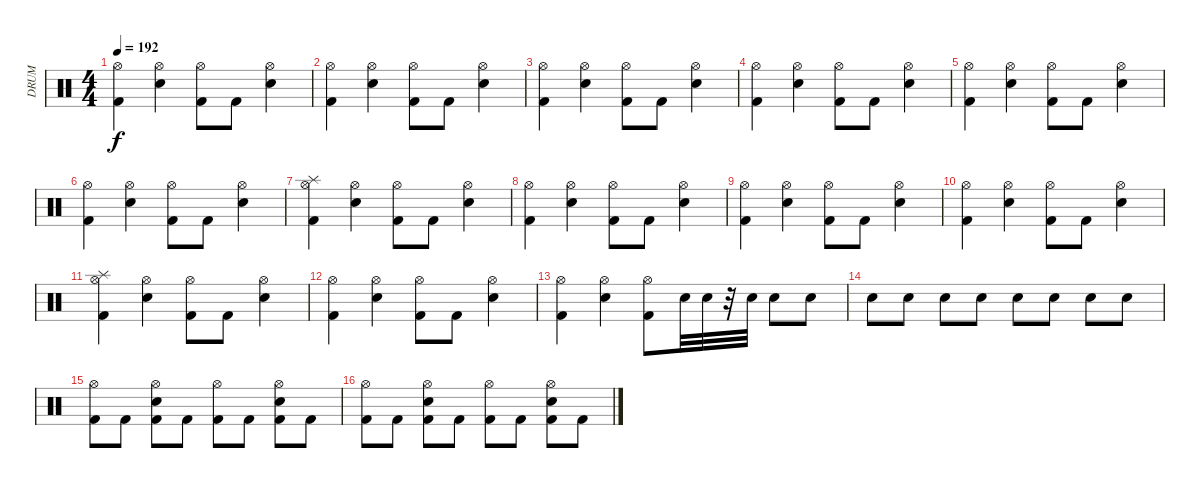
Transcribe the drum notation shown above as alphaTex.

\track ("     DRUM" "     DRUM") {instrument percussion}
\staff {score}
\articulation defaults
\ts (4 4)
\tempo 192
\clef neutral
\ks c
("Hi-Hat (open)" "Kick (hit) 2").4{dy f} ("Hi-Hat (open)" "Electric Snare (hit)").4 ("Hi-Hat (open)" "Kick (hit) 2").8 "Kick (hit) 2".8 ("Hi-Hat (open)" "Electric Snare (hit)").4 |
("Hi-Hat (open)" "Kick (hit) 2").4 ("Hi-Hat (open)" "Electric Snare (hit)").4 ("Hi-Hat (open)" "Kick (hit) 2").8 "Kick (hit) 2".8 ("Hi-Hat (open)" "Electric Snare (hit)").4 |
("Hi-Hat (open)" "Kick (hit) 2").4 ("Hi-Hat (open)" "Electric Snare (hit)").4 ("Hi-Hat (open)" "Kick (hit) 2").8 "Kick (hit) 2".8 ("Hi-Hat (open)" "Electric Snare (hit)").4 |
("Hi-Hat (open)" "Kick (hit) 2").4 ("Hi-Hat (open)" "Electric Snare (hit)").4 ("Hi-Hat (open)" "Kick (hit) 2").8 "Kick (hit) 2".8 ("Hi-Hat (open)" "Electric Snare (hit)").4 |
("Hi-Hat (open)" "Kick (hit) 2").4 ("Hi-Hat (open)" "Electric Snare (hit)").4 ("Hi-Hat (open)" "Kick (hit) 2").8 "Kick (hit) 2".8 ("Hi-Hat (open)" "Electric Snare (hit)").4 |
("Hi-Hat (open)" "Kick (hit) 2").4 ("Hi-Hat (open)" "Electric Snare (hit)").4 ("Hi-Hat (open)" "Kick (hit) 2").8 "Kick (hit) 2".8 ("Hi-Hat (open)" "Electric Snare (hit)").4 |
("Splash (hit)" "Hi-Hat (open)" "Kick (hit) 2").4 ("Hi-Hat (open)" "Electric Snare (hit)").4 ("Hi-Hat (open)" "Kick (hit) 2").8 "Kick (hit) 2".8 ("Hi-Hat (open)" "Electric Snare (hit)").4 |
("Hi-Hat (open)" "Kick (hit) 2").4 ("Hi-Hat (open)" "Electric Snare (hit)").4 ("Hi-Hat (open)" "Kick (hit) 2").8 "Kick (hit) 2".8 ("Hi-Hat (open)" "Electric Snare (hit)").4 |
("Hi-Hat (open)" "Kick (hit) 2").4 ("Hi-Hat (open)" "Electric Snare (hit)").4 ("Hi-Hat (open)" "Kick (hit) 2").8 "Kick (hit) 2".8 ("Hi-Hat (open)" "Electric Snare (hit)").4 |
("Hi-Hat (open)" "Kick (hit) 2").4 ("Hi-Hat (open)" "Electric Snare (hit)").4 ("Hi-Hat (open)" "Kick (hit) 2").8 "Kick (hit) 2".8 ("Hi-Hat (open)" "Electric Snare (hit)").4 |
("Splash (hit)" "Hi-Hat (open)" "Kick (hit) 2").4 ("Hi-Hat (open)" "Electric Snare (hit)").4 ("Hi-Hat (open)" "Kick (hit) 2").8 "Kick (hit) 2".8 ("Hi-Hat (open)" "Electric Snare (hit)").4 |
("Hi-Hat (open)" "Kick (hit) 2").4 ("Hi-Hat (open)" "Electric Snare (hit)").4 ("Hi-Hat (open)" "Kick (hit) 2").8 "Kick (hit) 2".8 ("Hi-Hat (open)" "Electric Snare (hit)").4 |
("Hi-Hat (open)" "Kick (hit) 2").4 ("Hi-Hat (open)" "Electric Snare (hit)").4 ("Hi-Hat (open)" "Kick (hit) 2").8 "Electric Snare (hit)".32 "Electric Snare (hit)".32 r.32 "Electric Snare (hit)".32 "Electric Snare (hit)".8 "Electric Snare (hit)".8 |
"Electric Snare (hit)".8 "Electric Snare (hit)".8 "Electric Snare (hit)".8 "Electric Snare (hit)".8 "Electric Snare (hit)".8 "Electric Snare (hit)".8 "Electric Snare (hit)".8 "Electric Snare (hit)".8 |
("Hi-Hat (open)" "Kick (hit) 2").8 "Kick (hit) 2".8 ("Electric Snare (hit)" "Hi-Hat (open)" "Kick (hit) 2").8 "Kick (hit) 2".8 ("Hi-Hat (open)" "Kick (hit) 2").8 "Kick (hit) 2".8 ("Electric Snare (hit)" "Hi-Hat (open)" "Kick (hit) 2").8 "Kick (hit) 2".8 |
("Hi-Hat (open)" "Kick (hit) 2").8 "Kick (hit) 2".8 ("Electric Snare (hit)" "Hi-Hat (open)" "Kick (hit) 2").8 "Kick (hit) 2".8 ("Hi-Hat (open)" "Kick (hit) 2").8 "Kick (hit) 2".8 ("Electric Snare (hit)" "Hi-Hat (open)" "Kick (hit) 2").8 "Kick (hit) 2".8
